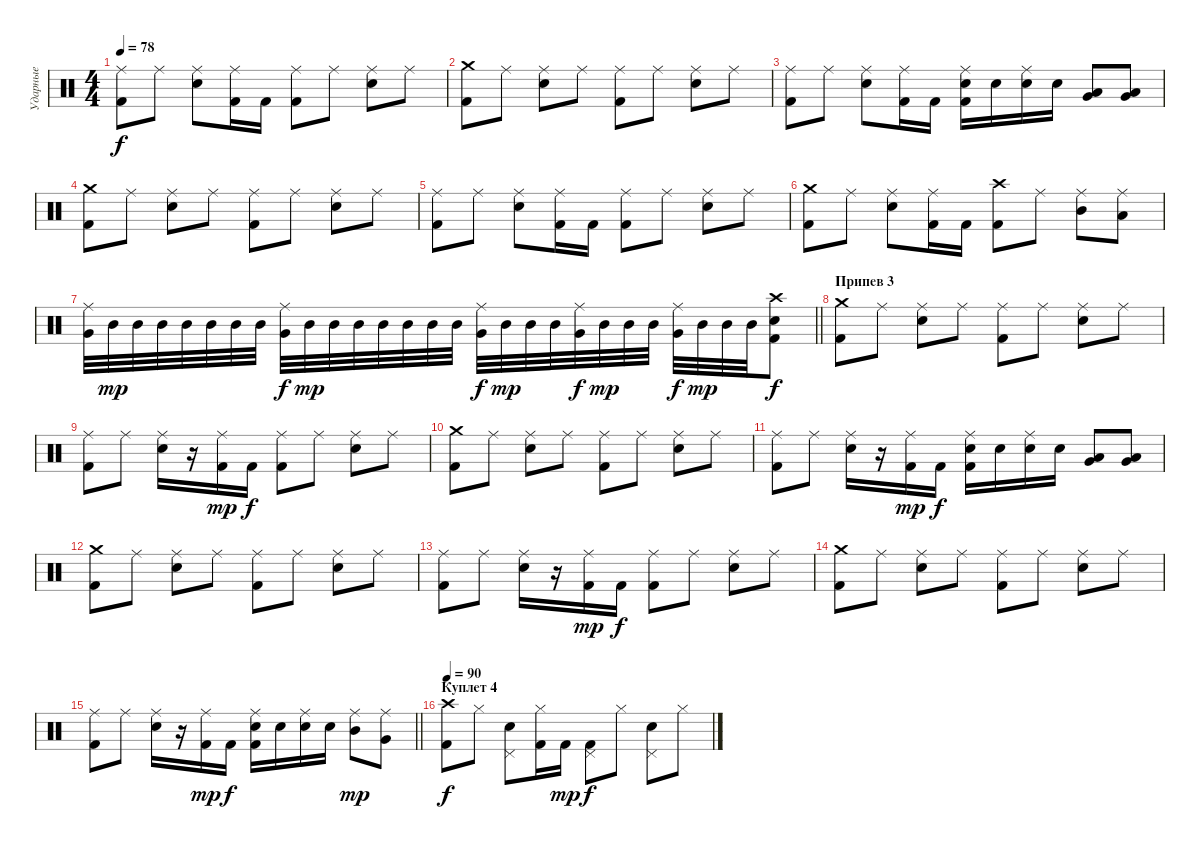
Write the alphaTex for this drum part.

\track ("Ударные" "Ударные") {instrument percussion}
\staff {score}
\articulation defaults
\ts (4 4)
\tempo 78
\clef neutral
\ks c
("Ride (middle)" "Kick (hit) 2").8{dy f} "Ride (middle)".8 ("Ride (middle)" "Snare (hit) 2").8 ("Ride (middle)" "Kick (hit) 2").16 "Kick (hit) 2".16 ("Ride (middle)" "Kick (hit) 2").8 "Ride (middle)".8 ("Ride (middle)" "Snare (hit) 2").8 "Ride (middle)".8 |
("Crash medium (hit)" "Kick (hit) 2").8 "Ride (middle)".8 ("Ride (middle)" "Snare (hit) 2").8 "Ride (middle)".8 ("Ride (middle)" "Kick (hit) 2").8 "Ride (middle)".8 ("Ride (middle)" "Snare (hit) 2").8 "Ride (middle)".8 |
("Ride (middle)" "Kick (hit) 2").8 "Ride (middle)".8 ("Ride (middle)" "Snare (hit) 2").8 ("Ride (middle)" "Kick (hit) 2").16 "Kick (hit) 2".16 ("Ride (middle)" "Snare (hit) 2" "Kick (hit) 2").16 "Snare (hit) 2".16 ("Ride (middle)" "Snare (hit) 2").16 "Snare (hit) 2".16 ("Very Low Tom (hit)" "Low Floor Tom (hit)").8 ("Very Low Tom (hit)" "Low Floor Tom (hit)").8 |
("Crash medium (hit)" "Kick (hit) 2").8 "Ride (middle)".8 ("Ride (middle)" "Snare (hit) 2").8 "Ride (middle)".8 ("Ride (middle)" "Kick (hit) 2").8 "Ride (middle)".8 ("Ride (middle)" "Snare (hit) 2").8 "Ride (middle)".8 |
("Ride (middle)" "Kick (hit) 2").8 "Ride (middle)".8 ("Ride (middle)" "Snare (hit) 2").8 ("Ride (middle)" "Kick (hit) 2").16 "Kick (hit) 2".16 ("Ride (middle)" "Kick (hit) 2").8 "Ride (middle)".8 ("Ride (middle)" "Snare (hit) 2").8 "Ride (middle)".8 |
("Crash medium (hit)" "Kick (hit) 2").8 "Ride (middle)".8 ("Ride (middle)" "Snare (hit) 2").8 ("Ride (middle)" "Kick (hit) 2").16 "Kick (hit) 2".16 ("Crash high (hit)" "Kick (hit) 2").8 "Ride (middle)".8 ("Ride (middle)" "Mid Tom (hit)").8 ("Ride (middle)" "Low Tom (hit)").8 |
\barLineRight lightlight
("Ride (middle)" "Very Low Tom (hit)").32 "Mid Tom (hit)".32{dy mp} "Mid Tom (hit)".32 "Mid Tom (hit)".32 "Mid Tom (hit)".32 "Mid Tom (hit)".32 "Mid Tom (hit)".32 "Mid Tom (hit)".32 ("Ride (middle)" "Very Low Tom (hit)").32{dy f} "Mid Tom (hit)".32{dy mp} "Mid Tom (hit)".32 "Mid Tom (hit)".32 "Mid Tom (hit)".32 "Mid Tom (hit)".32 "Mid Tom (hit)".32 "Mid Tom (hit)".32 ("Ride (middle)" "Very Low Tom (hit)").32{dy f} "Mid Tom (hit)".32{dy mp} "Mid Tom (hit)".32 "Mid Tom (hit)".32 ("Ride (middle)" "Very Low Tom (hit)").32{dy f} "Mid Tom (hit)".32{dy mp} "Mid Tom (hit)".32 "Mid Tom (hit)".32 ("Ride (middle)" "Very Low Tom (hit)").32{dy f} "Mid Tom (hit)".32{dy mp} "Mid Tom (hit)".32 "Mid Tom (hit)".32 ("Crash high (hit)" "Snare (hit) 2" "Kick (hit) 2").8{dy f} |
\section ("" "Припев 3")
("Crash medium (hit)" "Kick (hit) 2").8 "Ride (middle)".8 ("Ride (middle)" "Snare (hit) 2").8 "Ride (middle)".8 ("Ride (middle)" "Kick (hit) 2").8 "Ride (middle)".8 ("Ride (middle)" "Snare (hit) 2").8 "Ride (middle)".8 |
("Ride (middle)" "Kick (hit) 2").8 "Ride (middle)".8 ("Ride (middle)" "Snare (hit) 2").16 r.16 ("Ride (middle)" "Kick (hit) 2").16{dy mp} "Kick (hit) 2".16{dy f} ("Ride (middle)" "Kick (hit) 2").8 "Ride (middle)".8 ("Ride (middle)" "Snare (hit) 2").8 "Ride (middle)".8 |
("Crash medium (hit)" "Kick (hit) 2").8 "Ride (middle)".8 ("Ride (middle)" "Snare (hit) 2").8 "Ride (middle)".8 ("Ride (middle)" "Kick (hit) 2").8 "Ride (middle)".8 ("Ride (middle)" "Snare (hit) 2").8 "Ride (middle)".8 |
("Ride (middle)" "Kick (hit) 2").8 "Ride (middle)".8 ("Ride (middle)" "Snare (hit) 2").16 r.16 ("Ride (middle)" "Kick (hit) 2").16{dy mp} "Kick (hit) 2".16{dy f} ("Ride (middle)" "Snare (hit) 2" "Kick (hit) 2").16 "Snare (hit) 2".16 ("Ride (middle)" "Snare (hit) 2").16 "Snare (hit) 2".16 ("Very Low Tom (hit)" "Low Floor Tom (hit)").8 ("Very Low Tom (hit)" "Low Floor Tom (hit)").8 |
("Crash medium (hit)" "Kick (hit) 2").8 "Ride (middle)".8 ("Ride (middle)" "Snare (hit) 2").8 "Ride (middle)".8 ("Ride (middle)" "Kick (hit) 2").8 "Ride (middle)".8 ("Ride (middle)" "Snare (hit) 2").8 "Ride (middle)".8 |
("Ride (middle)" "Kick (hit) 2").8 "Ride (middle)".8 ("Ride (middle)" "Snare (hit) 2").16 r.16 ("Ride (middle)" "Kick (hit) 2").16{dy mp} "Kick (hit) 2".16{dy f} ("Ride (middle)" "Kick (hit) 2").8 "Ride (middle)".8 ("Ride (middle)" "Snare (hit) 2").8 "Ride (middle)".8 |
("Crash medium (hit)" "Kick (hit) 2").8 "Ride (middle)".8 ("Ride (middle)" "Snare (hit) 2").8 "Ride (middle)".8 ("Ride (middle)" "Kick (hit) 2").8 "Ride (middle)".8 ("Ride (middle)" "Snare (hit) 2").8 "Ride (middle)".8 |
\barLineRight lightlight
("Ride (middle)" "Kick (hit) 2").8 "Ride (middle)".8 ("Ride (middle)" "Snare (hit) 2").16 r.16 ("Ride (middle)" "Kick (hit) 2").16{dy mp} "Kick (hit) 2".16{dy f} ("Ride (middle)" "Snare (hit) 2" "Kick (hit) 2").16 "Snare (hit) 2".16 ("Ride (middle)" "Snare (hit) 2").16 "Snare (hit) 2".16 ("Ride (middle)" "Mid Tom (hit)").8{dy mp} ("Ride (middle)" "Very Low Tom (hit)").8 |
\section ("" "Куплет 4")
\tempo 90
("Crash high (hit)" "Kick (hit) 2").8{dy f} "Hi-Hat (closed)".8 ("Pedal Hi-Hat (hit)" "Snare (hit) 2").8 ("Hi-Hat (closed)" "Kick (hit) 2").16 "Kick (hit) 2".16{dy mp} ("Pedal Hi-Hat (hit)" "Kick (hit) 2").8{dy f} "Hi-Hat (closed)".8 ("Pedal Hi-Hat (hit)" "Snare (hit) 2").8 "Hi-Hat (closed)".8
